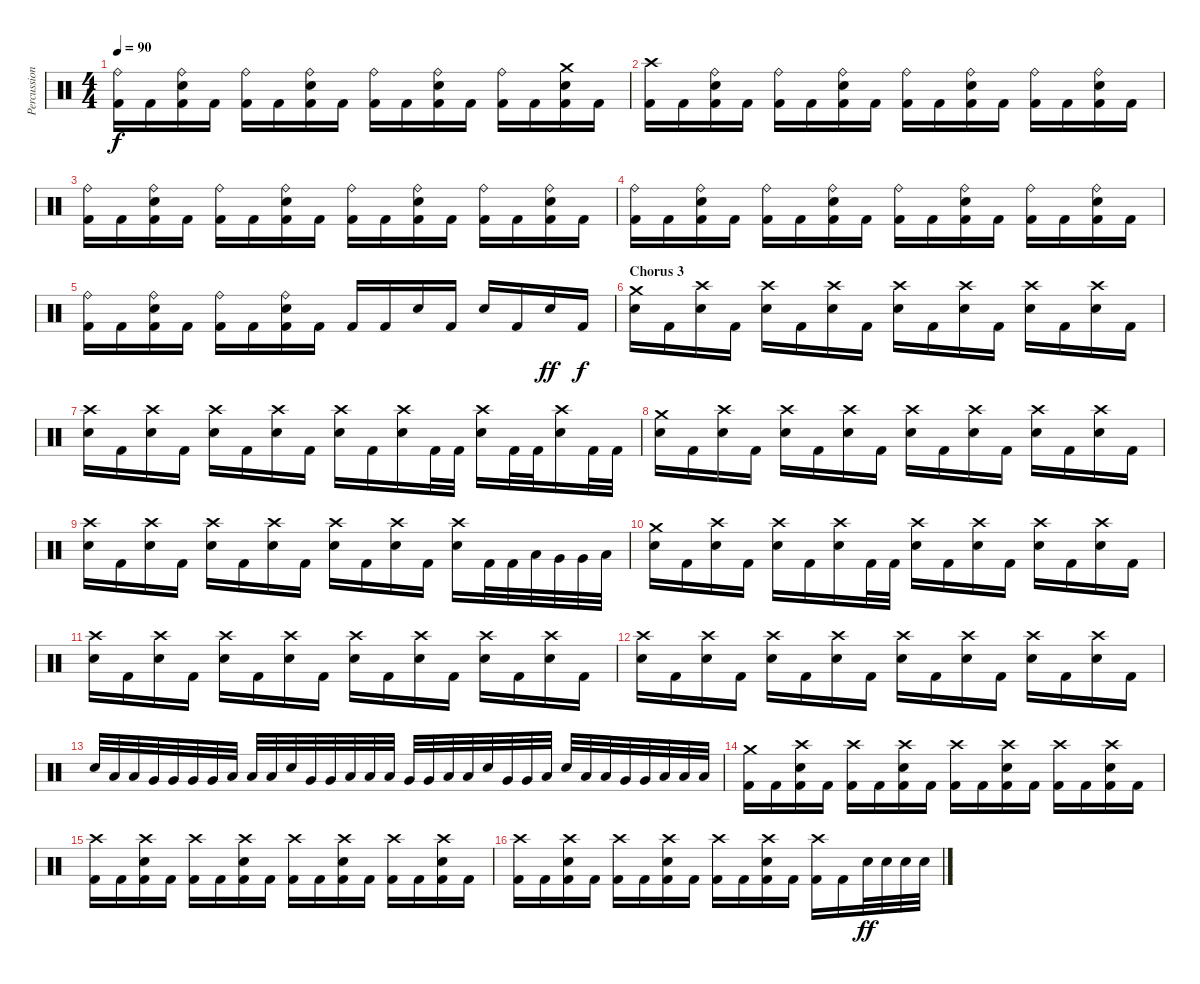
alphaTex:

\track ("Percussion" "Percussion") {instrument percussion}
\staff {score}
\articulation defaults
\ts (4 4)
\tempo 90
\clef neutral
\ks c
("Ride (bell)" "Kick (hit) 2").16{dy f} "Kick (hit) 2".16 ("Ride (bell)" "Electric Snare (hit)" "Kick (hit) 2").16 "Kick (hit) 2".16 ("Ride (bell)" "Kick (hit) 2").16 "Kick (hit) 2".16 ("Ride (bell)" "Electric Snare (hit)" "Kick (hit) 2").16 "Kick (hit) 2".16 ("Ride (bell)" "Kick (hit) 2").16 "Kick (hit) 2".16 ("Ride (bell)" "Electric Snare (hit)" "Kick (hit) 2").16 "Kick (hit) 2".16 ("Ride (bell)" "Kick (hit) 2").16 "Kick (hit) 2".16 ("Crash medium (hit)" "Electric Snare (hit)" "Kick (hit) 2").16 "Kick (hit) 2".16 |
("Crash high (hit)" "Kick (hit) 2").16 "Kick (hit) 2".16 ("Ride (bell)" "Electric Snare (hit)" "Kick (hit) 2").16 "Kick (hit) 2".16 ("Ride (bell)" "Kick (hit) 2").16 "Kick (hit) 2".16 ("Ride (bell)" "Electric Snare (hit)" "Kick (hit) 2").16 "Kick (hit) 2".16 ("Ride (bell)" "Kick (hit) 2").16 "Kick (hit) 2".16 ("Ride (bell)" "Electric Snare (hit)" "Kick (hit) 2").16 "Kick (hit) 2".16 ("Ride (bell)" "Kick (hit) 2").16 "Kick (hit) 2".16 ("Ride (bell)" "Electric Snare (hit)" "Kick (hit) 2").16 "Kick (hit) 2".16 |
("Ride (bell)" "Kick (hit) 2").16 "Kick (hit) 2".16 ("Ride (bell)" "Electric Snare (hit)" "Kick (hit) 2").16 "Kick (hit) 2".16 ("Ride (bell)" "Kick (hit) 2").16 "Kick (hit) 2".16 ("Ride (bell)" "Electric Snare (hit)" "Kick (hit) 2").16 "Kick (hit) 2".16 ("Ride (bell)" "Kick (hit) 2").16 "Kick (hit) 2".16 ("Ride (bell)" "Electric Snare (hit)" "Kick (hit) 2").16 "Kick (hit) 2".16 ("Ride (bell)" "Kick (hit) 2").16 "Kick (hit) 2".16 ("Ride (bell)" "Electric Snare (hit)" "Kick (hit) 2").16 "Kick (hit) 2".16 |
("Ride (bell)" "Kick (hit) 2").16 "Kick (hit) 2".16 ("Ride (bell)" "Electric Snare (hit)" "Kick (hit) 2").16 "Kick (hit) 2".16 ("Ride (bell)" "Kick (hit) 2").16 "Kick (hit) 2".16 ("Ride (bell)" "Electric Snare (hit)" "Kick (hit) 2").16 "Kick (hit) 2".16 ("Ride (bell)" "Kick (hit) 2").16 "Kick (hit) 2".16 ("Ride (bell)" "Electric Snare (hit)" "Kick (hit) 2").16 "Kick (hit) 2".16 ("Ride (bell)" "Kick (hit) 2").16 "Kick (hit) 2".16 ("Ride (bell)" "Electric Snare (hit)" "Kick (hit) 2").16 "Kick (hit) 2".16 |
("Ride (bell)" "Kick (hit) 2").16 "Kick (hit) 2".16 ("Ride (bell)" "Electric Snare (hit)" "Kick (hit) 2").16 "Kick (hit) 2".16 ("Ride (bell)" "Kick (hit) 2").16 "Kick (hit) 2".16 ("Ride (bell)" "Electric Snare (hit)" "Kick (hit) 2").16 "Kick (hit) 2".16 "Kick (hit) 2".16 "Kick (hit) 2".16 "Electric Snare (hit)".16 "Kick (hit) 2".16 "Electric Snare (hit)".16 "Kick (hit) 2".16 "Electric Snare (hit)".16{dy ff} "Kick (hit) 2".16{dy f} |
\section ("" "Chorus 3")
("Crash medium (hit)" "Electric Snare (hit)").16 "Kick (hit) 2".16 ("Crash high (hit)" "Electric Snare (hit)").16 "Kick (hit) 2".16 ("Crash high (hit)" "Electric Snare (hit)").16 "Kick (hit) 2".16 ("Crash high (hit)" "Electric Snare (hit)").16 "Kick (hit) 2".16 ("Crash high (hit)" "Electric Snare (hit)").16 "Kick (hit) 2".16 ("Crash high (hit)" "Electric Snare (hit)").16 "Kick (hit) 2".16 ("Crash high (hit)" "Electric Snare (hit)").16 "Kick (hit) 2".16 ("Crash high (hit)" "Electric Snare (hit)").16 "Kick (hit) 2".16 |
("Crash high (hit)" "Electric Snare (hit)").16 "Kick (hit) 2".16 ("Crash high (hit)" "Electric Snare (hit)").16 "Kick (hit) 2".16 ("Crash high (hit)" "Electric Snare (hit)").16 "Kick (hit) 2".16 ("Crash high (hit)" "Electric Snare (hit)").16 "Kick (hit) 2".16 ("Crash high (hit)" "Electric Snare (hit)").16 "Kick (hit) 2".16 ("Crash high (hit)" "Electric Snare (hit)").16 "Kick (hit) 2".32 "Kick (hit) 2".32 ("Crash high (hit)" "Electric Snare (hit)").16 "Kick (hit) 2".32 "Kick (hit) 2".32 ("Crash high (hit)" "Electric Snare (hit)").16 "Kick (hit) 2".32 "Kick (hit) 2".32 |
("Crash medium (hit)" "Electric Snare (hit)").16 "Kick (hit) 2".16 ("Crash high (hit)" "Electric Snare (hit)").16 "Kick (hit) 2".16 ("Crash high (hit)" "Electric Snare (hit)").16 "Kick (hit) 2".16 ("Crash high (hit)" "Electric Snare (hit)").16 "Kick (hit) 2".16 ("Crash high (hit)" "Electric Snare (hit)").16 "Kick (hit) 2".16 ("Crash high (hit)" "Electric Snare (hit)").16 "Kick (hit) 2".16 ("Crash high (hit)" "Electric Snare (hit)").16 "Kick (hit) 2".16 ("Crash high (hit)" "Electric Snare (hit)").16 "Kick (hit) 2".16 |
("Crash high (hit)" "Electric Snare (hit)").16 "Kick (hit) 2".16 ("Crash high (hit)" "Electric Snare (hit)").16 "Kick (hit) 2".16 ("Crash high (hit)" "Electric Snare (hit)").16 "Kick (hit) 2".16 ("Crash high (hit)" "Electric Snare (hit)").16 "Kick (hit) 2".16 ("Crash high (hit)" "Electric Snare (hit)").16 "Kick (hit) 2".16 ("Crash high (hit)" "Electric Snare (hit)").16 "Kick (hit) 2".16 ("Crash high (hit)" "Electric Snare (hit)").16 "Kick (hit) 2".32 "Kick (hit) 2".32 "Low Tom (hit)".32 "Very Low Tom (hit)".32 "Very Low Tom (hit)".32 "Low Floor Tom (hit)".32 |
("Crash medium (hit)" "Electric Snare (hit)").16 "Kick (hit) 2".16 ("Crash high (hit)" "Electric Snare (hit)").16 "Kick (hit) 2".16 ("Crash high (hit)" "Electric Snare (hit)").16 "Kick (hit) 2".16 ("Crash high (hit)" "Electric Snare (hit)").16 "Kick (hit) 2".32 "Kick (hit) 2".32 ("Crash high (hit)" "Electric Snare (hit)").16 "Kick (hit) 2".16 ("Crash high (hit)" "Electric Snare (hit)").16 "Kick (hit) 2".16 ("Crash high (hit)" "Electric Snare (hit)").16 "Kick (hit) 2".16 ("Crash high (hit)" "Electric Snare (hit)").16 "Kick (hit) 2".16 |
("Crash high (hit)" "Electric Snare (hit)").16 "Kick (hit) 2".16 ("Crash high (hit)" "Electric Snare (hit)").16 "Kick (hit) 2".16 ("Crash high (hit)" "Electric Snare (hit)").16 "Kick (hit) 2".16 ("Crash high (hit)" "Electric Snare (hit)").16 "Kick (hit) 2".16 ("Crash high (hit)" "Electric Snare (hit)").16 "Kick (hit) 2".16 ("Crash high (hit)" "Electric Snare (hit)").16 "Kick (hit) 2".16 ("Crash high (hit)" "Electric Snare (hit)").16 "Kick (hit) 2".16 ("Crash high (hit)" "Electric Snare (hit)").16 "Kick (hit) 2".16 |
("Crash high (hit)" "Electric Snare (hit)").16 "Kick (hit) 2".16 ("Crash high (hit)" "Electric Snare (hit)").16 "Kick (hit) 2".16 ("Crash high (hit)" "Electric Snare (hit)").16 "Kick (hit) 2".16 ("Crash high (hit)" "Electric Snare (hit)").16 "Kick (hit) 2".16 ("Crash high (hit)" "Electric Snare (hit)").16 "Kick (hit) 2".16 ("Crash high (hit)" "Electric Snare (hit)").16 "Kick (hit) 2".16 ("Crash high (hit)" "Electric Snare (hit)").16 "Kick (hit) 2".16 ("Crash high (hit)" "Electric Snare (hit)").16 "Kick (hit) 2".16 |
"Electric Snare (hit)".32 "Low Tom (hit)".32 "Low Tom (hit)".32 "Very Low Tom (hit)".32 "Very Low Tom (hit)".32 "Very Low Tom (hit)".32 "Very Low Tom (hit)".32 "Low Floor Tom (hit)".32 "Low Floor Tom (hit)".32 "Low Floor Tom (hit)".32 "Electric Snare (hit)".32 "Very Low Tom (hit)".32 "Very Low Tom (hit)".32 "Low Floor Tom (hit)".32 "Low Floor Tom (hit)".32 "Low Floor Tom (hit)".32 "Very Low Tom (hit)".32 "Very Low Tom (hit)".32 "Low Floor Tom (hit)".32 "Low Floor Tom (hit)".32 "Electric Snare (hit)".32 "Very Low Tom (hit)".32 "Very Low Tom (hit)".32 "Low Floor Tom (hit)".32 "Electric Snare (hit)".32 "Low Tom (hit)".32 "Low Tom (hit)".32 "Very Low Tom (hit)".32 "Very Low Tom (hit)".32 "Low Floor Tom (hit)".32 "Low Floor Tom (hit)".32 "Low Floor Tom (hit)".32 |
("Crash medium (hit)" "Kick (hit) 2").16 "Kick (hit) 2".16 ("Crash high (hit)" "Electric Snare (hit)" "Kick (hit) 2").16 "Kick (hit) 2".16 ("Crash high (hit)" "Kick (hit) 2").16 "Kick (hit) 2".16 ("Crash high (hit)" "Electric Snare (hit)" "Kick (hit) 2").16 "Kick (hit) 2".16 ("Crash high (hit)" "Kick (hit) 2").16 "Kick (hit) 2".16 ("Crash high (hit)" "Electric Snare (hit)" "Kick (hit) 2").16 "Kick (hit) 2".16 ("Crash high (hit)" "Kick (hit) 2").16 "Kick (hit) 2".16 ("Crash high (hit)" "Electric Snare (hit)" "Kick (hit) 2").16 "Kick (hit) 2".16 |
("Crash high (hit)" "Kick (hit) 2").16 "Kick (hit) 2".16 ("Crash high (hit)" "Electric Snare (hit)" "Kick (hit) 2").16 "Kick (hit) 2".16 ("Crash high (hit)" "Kick (hit) 2").16 "Kick (hit) 2".16 ("Crash high (hit)" "Electric Snare (hit)" "Kick (hit) 2").16 "Kick (hit) 2".16 ("Crash high (hit)" "Kick (hit) 2").16 "Kick (hit) 2".16 ("Crash high (hit)" "Electric Snare (hit)" "Kick (hit) 2").16 "Kick (hit) 2".16 ("Crash high (hit)" "Kick (hit) 2").16 "Kick (hit) 2".16 ("Crash high (hit)" "Electric Snare (hit)" "Kick (hit) 2").16 "Kick (hit) 2".16 |
("Crash high (hit)" "Kick (hit) 2").16 "Kick (hit) 2".16 ("Crash high (hit)" "Electric Snare (hit)" "Kick (hit) 2").16 "Kick (hit) 2".16 ("Crash high (hit)" "Kick (hit) 2").16 "Kick (hit) 2".16 ("Crash high (hit)" "Electric Snare (hit)" "Kick (hit) 2").16 "Kick (hit) 2".16 ("Crash high (hit)" "Kick (hit) 2").16 "Kick (hit) 2".16 ("Crash high (hit)" "Electric Snare (hit)" "Kick (hit) 2").16 "Kick (hit) 2".16 ("Crash high (hit)" "Kick (hit) 2").16 "Kick (hit) 2".16 "Electric Snare (hit)".32{dy ff} "Electric Snare (hit)".32 "Electric Snare (hit)".32 "Electric Snare (hit)".32
